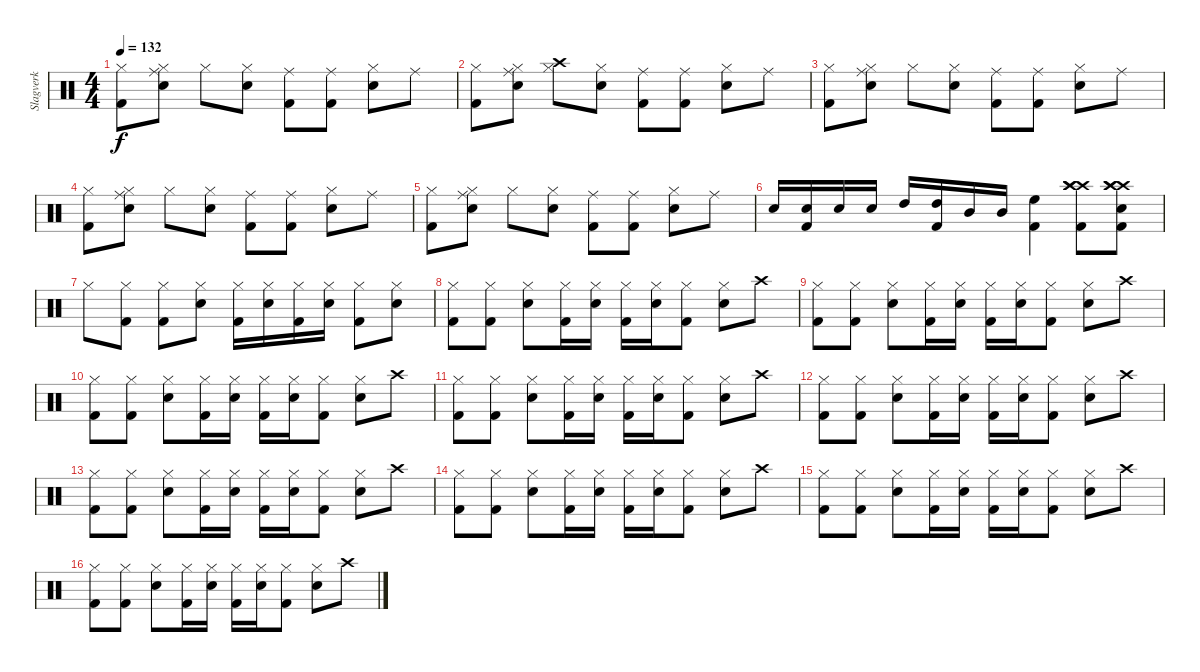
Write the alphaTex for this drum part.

\track ("Slagverk" "Slagverk") {instrument percussion}
\staff {score}
\articulation defaults
\ts (4 4)
\tempo 132
\clef neutral
\ks c
("Kick (hit) 2" "Hi-Hat (closed)").8{dy f} ("Snare (hit) 2" "Hi-Hat (closed)" "Ride (middle)").8 "Hi-Hat (closed)".8 ("Snare (hit) 2" "Hi-Hat (closed)").8 ("Kick (hit) 2" "Ride (middle)").8 ("Kick (hit) 2" "Ride (middle)").8 ("Snare (hit) 2" "Hi-Hat (closed)").8 "Ride (middle)".8 |
("Kick (hit) 2" "Hi-Hat (closed)").8 ("Snare (hit) 2" "Hi-Hat (closed)" "Ride (middle)").8 ("Hi-Hat (closed)" "Crash high (hit)").8 ("Snare (hit) 2" "Hi-Hat (closed)").8 ("Kick (hit) 2" "Ride (middle)").8 ("Kick (hit) 2" "Ride (middle)").8 ("Snare (hit) 2" "Hi-Hat (closed)").8 "Ride (middle)".8 |
("Kick (hit) 2" "Hi-Hat (closed)").8 ("Snare (hit) 2" "Hi-Hat (closed)" "Ride (middle)").8 "Hi-Hat (closed)".8 ("Snare (hit) 2" "Hi-Hat (closed)").8 ("Kick (hit) 2" "Ride (middle)").8 ("Kick (hit) 2" "Ride (middle)").8 ("Snare (hit) 2" "Hi-Hat (closed)").8 "Ride (middle)".8 |
("Kick (hit) 2" "Hi-Hat (closed)").8 ("Snare (hit) 2" "Hi-Hat (closed)" "Ride (middle)").8 "Hi-Hat (closed)".8 ("Snare (hit) 2" "Hi-Hat (closed)").8 ("Kick (hit) 2" "Ride (middle)").8 ("Kick (hit) 2" "Ride (middle)").8 ("Snare (hit) 2" "Hi-Hat (closed)").8 "Ride (middle)".8 |
("Kick (hit) 2" "Hi-Hat (closed)").8 ("Snare (hit) 2" "Hi-Hat (closed)" "Ride (middle)").8 "Hi-Hat (closed)".8 ("Snare (hit) 2" "Hi-Hat (closed)").8 ("Kick (hit) 2" "Ride (middle)").8 ("Kick (hit) 2" "Ride (middle)").8 ("Snare (hit) 2" "Hi-Hat (closed)").8 "Ride (middle)".8 |
"Snare (hit) 2".16 ("Kick (hit) 2" "Snare (hit) 2").16 "Snare (hit) 2".16 "Snare (hit) 2".16 "High Tom (hit)".16 ("Kick (hit) 2" "High Tom (hit)").16 "Mid Tom (hit)".16 "Mid Tom (hit)".16 ("Kick (hit) 2" "High Floor Tom (hit)").4 ("Kick (hit) 2" "Crash high (hit)" "Crash high (hit)" "Crash high (hit)").8 ("Kick (hit) 2" "Crash high (hit)" "Crash high (hit)" "Crash high (hit)" "Snare (hit) 2").8 |
"Hi-Hat (closed)".8 ("Kick (hit) 2" "Hi-Hat (closed)").8 ("Kick (hit) 2" "Hi-Hat (closed)").8 ("Snare (hit) 2" "Hi-Hat (closed)").8 ("Kick (hit) 2" "Hi-Hat (closed)").16 ("Snare (hit) 2" "Hi-Hat (closed)").16 ("Kick (hit) 2" "Hi-Hat (closed)").16 ("Snare (hit) 2" "Hi-Hat (closed)").16 ("Kick (hit) 2" "Hi-Hat (closed)").8 ("Snare (hit) 2" "Hi-Hat (closed)").8 |
("Kick (hit) 2" "Hi-Hat (closed)").8{volume 10} ("Kick (hit) 2" "Hi-Hat (closed)").8 ("Snare (hit) 2" "Hi-Hat (closed)").8 ("Kick (hit) 2" "Hi-Hat (closed)").16 ("Snare (hit) 2" "Hi-Hat (closed)").16 ("Kick (hit) 2" "Hi-Hat (closed)").16 ("Snare (hit) 2" "Hi-Hat (closed)").16 ("Kick (hit) 2" "Hi-Hat (closed)").8 ("Snare (hit) 2" "Hi-Hat (closed)").8 "Crash high (hit)".8 |
("Kick (hit) 2" "Hi-Hat (closed)").8{volume 8} ("Kick (hit) 2" "Hi-Hat (closed)").8 ("Snare (hit) 2" "Hi-Hat (closed)").8 ("Kick (hit) 2" "Hi-Hat (closed)").16 ("Snare (hit) 2" "Hi-Hat (closed)").16 ("Kick (hit) 2" "Hi-Hat (closed)").16 ("Snare (hit) 2" "Hi-Hat (closed)").16 ("Kick (hit) 2" "Hi-Hat (closed)").8 ("Snare (hit) 2" "Hi-Hat (closed)").8 "Crash high (hit)".8 |
("Kick (hit) 2" "Hi-Hat (closed)").8{volume 6} ("Kick (hit) 2" "Hi-Hat (closed)").8 ("Snare (hit) 2" "Hi-Hat (closed)").8 ("Kick (hit) 2" "Hi-Hat (closed)").16 ("Snare (hit) 2" "Hi-Hat (closed)").16 ("Kick (hit) 2" "Hi-Hat (closed)").16 ("Snare (hit) 2" "Hi-Hat (closed)").16 ("Kick (hit) 2" "Hi-Hat (closed)").8 ("Snare (hit) 2" "Hi-Hat (closed)").8 "Crash high (hit)".8 |
("Kick (hit) 2" "Hi-Hat (closed)").8{volume 5} ("Kick (hit) 2" "Hi-Hat (closed)").8 ("Snare (hit) 2" "Hi-Hat (closed)").8 ("Kick (hit) 2" "Hi-Hat (closed)").16 ("Snare (hit) 2" "Hi-Hat (closed)").16 ("Kick (hit) 2" "Hi-Hat (closed)").16 ("Snare (hit) 2" "Hi-Hat (closed)").16 ("Kick (hit) 2" "Hi-Hat (closed)").8 ("Snare (hit) 2" "Hi-Hat (closed)").8 "Crash high (hit)".8 |
("Kick (hit) 2" "Hi-Hat (closed)").8{volume 5} ("Kick (hit) 2" "Hi-Hat (closed)").8 ("Snare (hit) 2" "Hi-Hat (closed)").8 ("Kick (hit) 2" "Hi-Hat (closed)").16 ("Snare (hit) 2" "Hi-Hat (closed)").16 ("Kick (hit) 2" "Hi-Hat (closed)").16 ("Snare (hit) 2" "Hi-Hat (closed)").16 ("Kick (hit) 2" "Hi-Hat (closed)").8 ("Snare (hit) 2" "Hi-Hat (closed)").8 "Crash high (hit)".8 |
("Kick (hit) 2" "Hi-Hat (closed)").8{volume 4} ("Kick (hit) 2" "Hi-Hat (closed)").8 ("Snare (hit) 2" "Hi-Hat (closed)").8 ("Kick (hit) 2" "Hi-Hat (closed)").16 ("Snare (hit) 2" "Hi-Hat (closed)").16 ("Kick (hit) 2" "Hi-Hat (closed)").16 ("Snare (hit) 2" "Hi-Hat (closed)").16 ("Kick (hit) 2" "Hi-Hat (closed)").8 ("Snare (hit) 2" "Hi-Hat (closed)").8 "Crash high (hit)".8 |
("Kick (hit) 2" "Hi-Hat (closed)").8{volume 3} ("Kick (hit) 2" "Hi-Hat (closed)").8 ("Snare (hit) 2" "Hi-Hat (closed)").8 ("Kick (hit) 2" "Hi-Hat (closed)").16 ("Snare (hit) 2" "Hi-Hat (closed)").16 ("Kick (hit) 2" "Hi-Hat (closed)").16 ("Snare (hit) 2" "Hi-Hat (closed)").16 ("Kick (hit) 2" "Hi-Hat (closed)").8 ("Snare (hit) 2" "Hi-Hat (closed)").8 "Crash high (hit)".8 |
("Kick (hit) 2" "Hi-Hat (closed)").8{volume 2} ("Kick (hit) 2" "Hi-Hat (closed)").8 ("Snare (hit) 2" "Hi-Hat (closed)").8 ("Kick (hit) 2" "Hi-Hat (closed)").16 ("Snare (hit) 2" "Hi-Hat (closed)").16 ("Kick (hit) 2" "Hi-Hat (closed)").16 ("Snare (hit) 2" "Hi-Hat (closed)").16 ("Kick (hit) 2" "Hi-Hat (closed)").8 ("Snare (hit) 2" "Hi-Hat (closed)").8 "Crash high (hit)".8 |
("Kick (hit) 2" "Hi-Hat (closed)").8{volume 2} ("Kick (hit) 2" "Hi-Hat (closed)").8 ("Snare (hit) 2" "Hi-Hat (closed)").8 ("Kick (hit) 2" "Hi-Hat (closed)").16 ("Snare (hit) 2" "Hi-Hat (closed)").16 ("Kick (hit) 2" "Hi-Hat (closed)").16 ("Snare (hit) 2" "Hi-Hat (closed)").16 ("Kick (hit) 2" "Hi-Hat (closed)").8 ("Snare (hit) 2" "Hi-Hat (closed)").8 "Crash high (hit)".8
